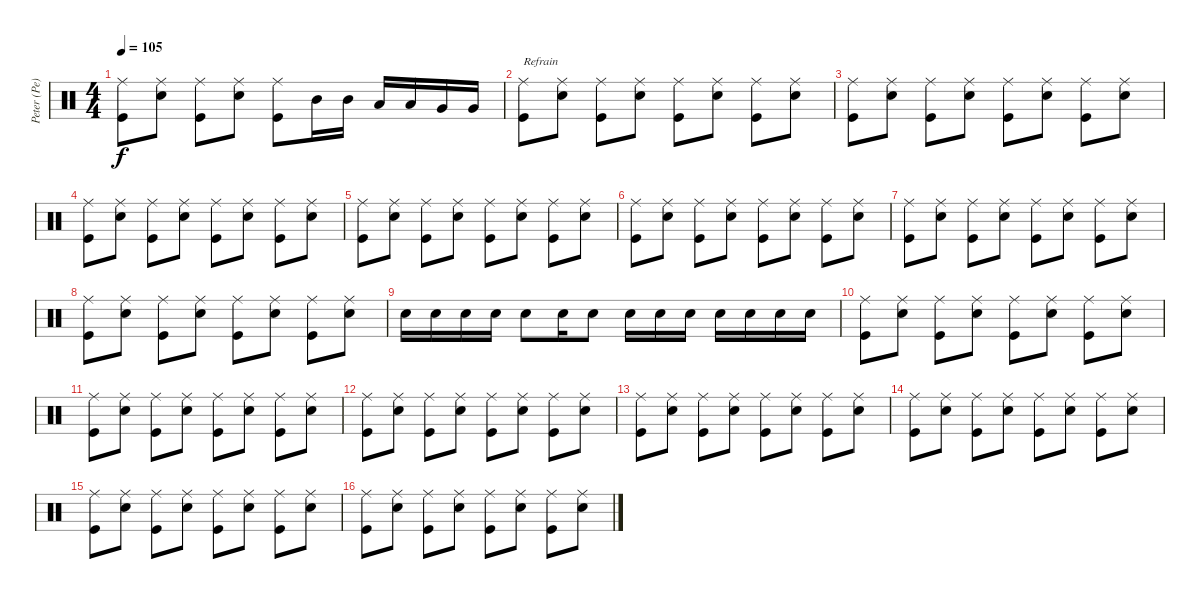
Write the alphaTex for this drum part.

\track ("Peter (Pe) Schorowsky" "Peter (Pe)") {instrument percussion}
\staff {score}
\articulation defaults
\ts (4 4)
\tempo 105
\clef neutral
\ks c
("Ride (middle)" "Kick (hit)").8{dy f} ("Ride (middle)" "Snare (hit) 2").8 ("Ride (middle)" "Kick (hit)").8 ("Ride (middle)" "Snare (hit) 2").8 ("Ride (middle)" "Kick (hit)").8 "Mid Tom (hit)".16 "Mid Tom (hit)".16 "Low Tom (hit)".16 "Low Tom (hit)".16 "Very Low Tom (hit)".16 "Very Low Tom (hit)".16 |
("Ride (middle)" "Kick (hit)").8{txt "Refrain"} ("Ride (middle)" "Snare (hit) 2").8 ("Ride (middle)" "Kick (hit)").8 ("Ride (middle)" "Snare (hit) 2").8 ("Ride (middle)" "Kick (hit)").8 ("Ride (middle)" "Snare (hit) 2").8 ("Ride (middle)" "Kick (hit)").8 ("Ride (middle)" "Snare (hit) 2").8 |
("Ride (middle)" "Kick (hit)").8 ("Ride (middle)" "Snare (hit) 2").8 ("Ride (middle)" "Kick (hit)").8 ("Ride (middle)" "Snare (hit) 2").8 ("Ride (middle)" "Kick (hit)").8 ("Ride (middle)" "Snare (hit) 2").8 ("Ride (middle)" "Kick (hit)").8 ("Ride (middle)" "Snare (hit) 2").8 |
("Ride (middle)" "Kick (hit)").8 ("Ride (middle)" "Snare (hit) 2").8 ("Ride (middle)" "Kick (hit)").8 ("Ride (middle)" "Snare (hit) 2").8 ("Ride (middle)" "Kick (hit)").8 ("Ride (middle)" "Snare (hit) 2").8 ("Ride (middle)" "Kick (hit)").8 ("Ride (middle)" "Snare (hit) 2").8 |
("Ride (middle)" "Kick (hit)").8 ("Ride (middle)" "Snare (hit) 2").8 ("Ride (middle)" "Kick (hit)").8 ("Ride (middle)" "Snare (hit) 2").8 ("Ride (middle)" "Kick (hit)").8 ("Ride (middle)" "Snare (hit) 2").8 ("Ride (middle)" "Kick (hit)").8 ("Ride (middle)" "Snare (hit) 2").8 |
("Ride (middle)" "Kick (hit)").8 ("Ride (middle)" "Snare (hit) 2").8 ("Ride (middle)" "Kick (hit)").8 ("Ride (middle)" "Snare (hit) 2").8 ("Ride (middle)" "Kick (hit)").8 ("Ride (middle)" "Snare (hit) 2").8 ("Ride (middle)" "Kick (hit)").8 ("Ride (middle)" "Snare (hit) 2").8 |
("Ride (middle)" "Kick (hit)").8 ("Ride (middle)" "Snare (hit) 2").8 ("Ride (middle)" "Kick (hit)").8 ("Ride (middle)" "Snare (hit) 2").8 ("Ride (middle)" "Kick (hit)").8 ("Ride (middle)" "Snare (hit) 2").8 ("Ride (middle)" "Kick (hit)").8 ("Ride (middle)" "Snare (hit) 2").8 |
("Ride (middle)" "Kick (hit)").8 ("Ride (middle)" "Snare (hit) 2").8 ("Ride (middle)" "Kick (hit)").8 ("Ride (middle)" "Snare (hit) 2").8 ("Ride (middle)" "Kick (hit)").8 ("Ride (middle)" "Snare (hit) 2").8 ("Ride (middle)" "Kick (hit)").8 ("Ride (middle)" "Snare (hit) 2").8 |
"Snare (hit) 2".16 "Snare (hit) 2".16 "Snare (hit) 2".16 "Snare (hit) 2".16 "Snare (hit) 2".8 "Snare (hit) 2".16 "Snare (hit) 2".8 "Snare (hit) 2".16 "Snare (hit) 2".16 "Snare (hit) 2".16 "Snare (hit) 2".16 "Snare (hit) 2".16 "Snare (hit) 2".16 "Snare (hit) 2".16 |
("Ride (middle)" "Kick (hit)").8 ("Ride (middle)" "Snare (hit) 2").8 ("Ride (middle)" "Kick (hit)").8 ("Ride (middle)" "Snare (hit) 2").8 ("Ride (middle)" "Kick (hit)").8 ("Ride (middle)" "Snare (hit) 2").8 ("Ride (middle)" "Kick (hit)").8 ("Ride (middle)" "Snare (hit) 2").8 |
("Ride (middle)" "Kick (hit)").8 ("Ride (middle)" "Snare (hit) 2").8 ("Ride (middle)" "Kick (hit)").8 ("Ride (middle)" "Snare (hit) 2").8 ("Ride (middle)" "Kick (hit)").8 ("Ride (middle)" "Snare (hit) 2").8 ("Ride (middle)" "Kick (hit)").8 ("Ride (middle)" "Snare (hit) 2").8 |
("Ride (middle)" "Kick (hit)").8 ("Ride (middle)" "Snare (hit) 2").8 ("Ride (middle)" "Kick (hit)").8 ("Ride (middle)" "Snare (hit) 2").8 ("Ride (middle)" "Kick (hit)").8 ("Ride (middle)" "Snare (hit) 2").8 ("Ride (middle)" "Kick (hit)").8 ("Ride (middle)" "Snare (hit) 2").8 |
("Ride (middle)" "Kick (hit)").8 ("Ride (middle)" "Snare (hit) 2").8 ("Ride (middle)" "Kick (hit)").8 ("Ride (middle)" "Snare (hit) 2").8 ("Ride (middle)" "Kick (hit)").8 ("Ride (middle)" "Snare (hit) 2").8 ("Ride (middle)" "Kick (hit)").8 ("Ride (middle)" "Snare (hit) 2").8 |
("Ride (middle)" "Kick (hit)").8 ("Ride (middle)" "Snare (hit) 2").8 ("Ride (middle)" "Kick (hit)").8 ("Ride (middle)" "Snare (hit) 2").8 ("Ride (middle)" "Kick (hit)").8 ("Ride (middle)" "Snare (hit) 2").8 ("Ride (middle)" "Kick (hit)").8 ("Ride (middle)" "Snare (hit) 2").8 |
("Ride (middle)" "Kick (hit)").8 ("Ride (middle)" "Snare (hit) 2").8 ("Ride (middle)" "Kick (hit)").8 ("Ride (middle)" "Snare (hit) 2").8 ("Ride (middle)" "Kick (hit)").8 ("Ride (middle)" "Snare (hit) 2").8 ("Ride (middle)" "Kick (hit)").8 ("Ride (middle)" "Snare (hit) 2").8 |
("Ride (middle)" "Kick (hit)").8 ("Ride (middle)" "Snare (hit) 2").8 ("Ride (middle)" "Kick (hit)").8 ("Ride (middle)" "Snare (hit) 2").8 ("Ride (middle)" "Kick (hit)").8 ("Ride (middle)" "Snare (hit) 2").8 ("Ride (middle)" "Kick (hit)").8 ("Ride (middle)" "Snare (hit) 2").8
